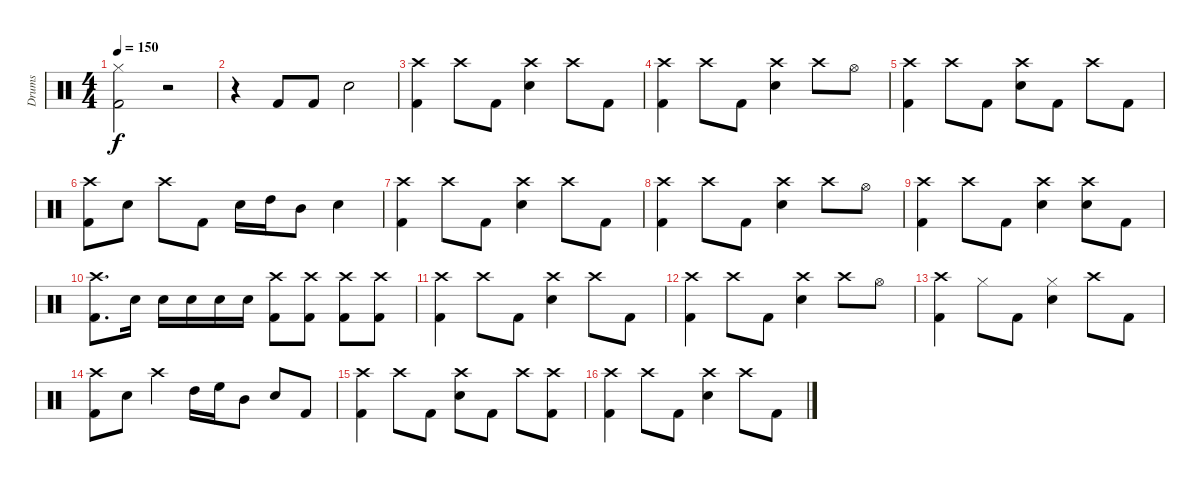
\track ("Drums" "Drums") {instrument percussion}
\staff {score}
\articulation defaults
\ts (4 4)
\tempo 150
\clef neutral
\ks c
("Kick (hit) 2" "Hi-Hat (closed)").2{dy f} r.2 |
r.4 "Kick (hit) 2".8 "Kick (hit) 2".8 "Snare (hit) 2".2 |
("Crash high (hit)" "Kick (hit) 2").4 "Crash high (hit)".8 "Kick (hit) 2".8 ("Crash high (hit)" "Snare (hit) 2").4 "Crash high (hit)".8 "Kick (hit) 2".8 |
("Crash high (hit)" "Kick (hit) 2").4 "Crash high (hit)".8 "Kick (hit) 2".8 ("Crash high (hit)" "Snare (hit) 2").4 "Crash high (hit)".8 "Hi-Hat (open)".8 |
("Crash high (hit)" "Kick (hit) 2").4 "Crash high (hit)".8 "Kick (hit) 2".8 ("Crash high (hit)" "Snare (hit) 2").8 "Kick (hit) 2".8 "Crash high (hit)".8 "Kick (hit) 2".8 |
("Crash high (hit)" "Kick (hit) 2").8 "Snare (hit) 2".8 "Crash high (hit)".8 "Kick (hit) 2".8 "Snare (hit) 2".16 "High Tom (hit)".16 "Mid Tom (hit)".8 "Snare (hit) 2".4 |
("Crash high (hit)" "Kick (hit) 2").4 "Crash high (hit)".8 "Kick (hit) 2".8 ("Crash high (hit)" "Snare (hit) 2").4 "Crash high (hit)".8 "Kick (hit) 2".8 |
("Crash high (hit)" "Kick (hit) 2").4 "Crash high (hit)".8 "Kick (hit) 2".8 ("Crash high (hit)" "Snare (hit) 2").4 "Crash high (hit)".8 "Hi-Hat (open)".8 |
("Crash high (hit)" "Kick (hit) 2").4 "Crash high (hit)".8 "Kick (hit) 2".8 ("Crash high (hit)" "Snare (hit) 2").4 ("Crash high (hit)" "Snare (hit) 2").8 "Kick (hit) 2".8 |
("Kick (hit) 2" "Crash high (hit)").8{d} "Snare (hit) 2".16 "Snare (hit) 2".16 "Snare (hit) 2".16 "Snare (hit) 2".16 "Snare (hit) 2".16 ("Kick (hit) 2" "Crash high (hit)").8 ("Kick (hit) 2" "Crash high (hit)").8 ("Kick (hit) 2" "Crash high (hit)").8 ("Kick (hit) 2" "Crash high (hit)").8 |
("Crash high (hit)" "Kick (hit) 2").4 "Crash high (hit)".8 "Kick (hit) 2".8 ("Crash high (hit)" "Snare (hit) 2").4 "Crash high (hit)".8 "Kick (hit) 2".8 |
("Crash high (hit)" "Kick (hit) 2").4 "Crash high (hit)".8 "Kick (hit) 2".8 ("Crash high (hit)" "Snare (hit) 2").4 "Crash high (hit)".8 "Hi-Hat (open)".8 |
("Crash high (hit)" "Kick (hit) 2").4 "Hi-Hat (closed)".8 "Kick (hit) 2".8 ("Hi-Hat (closed)" "Snare (hit) 2").4 "Crash high (hit)".8 "Kick (hit) 2".8 |
("Crash high (hit)" "Kick (hit) 2").8 "Snare (hit) 2".8 "Crash high (hit)".4 "High Tom (hit)".16 "High Floor Tom (hit)".16 "Mid Tom (hit)".8 "Snare (hit) 2".8 "Kick (hit) 2".8 |
("Crash high (hit)" "Kick (hit) 2").4 "Crash high (hit)".8 "Kick (hit) 2".8 ("Crash high (hit)" "Snare (hit) 2").8 "Kick (hit) 2".8 "Crash high (hit)".8 ("Crash high (hit)" "Kick (hit) 2").8 |
("Crash high (hit)" "Kick (hit) 2").4 "Crash high (hit)".8 "Kick (hit) 2".8 ("Crash high (hit)" "Snare (hit) 2").4 "Crash high (hit)".8 "Kick (hit) 2".8
